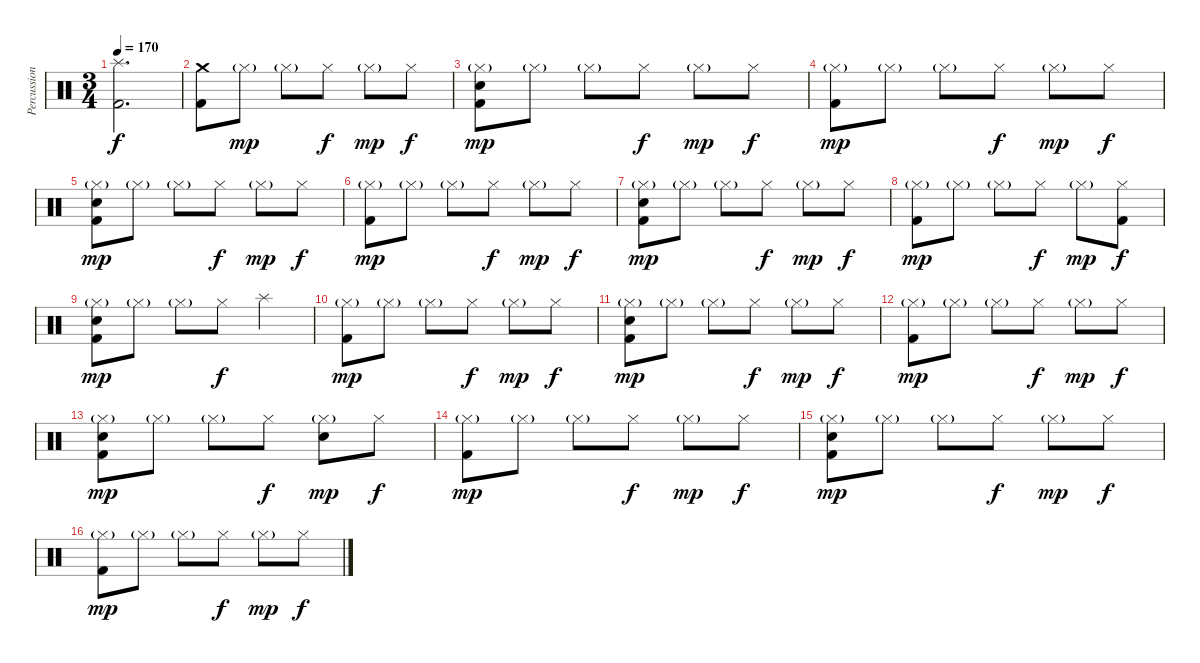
\track ("Percussion" "Percussion") {instrument percussion}
\staff {score}
\articulation defaults
\ts (3 4)
\tempo 170
\clef neutral
\ks c
("Splash (hit)" "Kick (hit) 2").2{d dy f} |
("Crash medium (hit)" "Kick (hit) 2").8 "Hi-Hat (closed)"{g}.8{dy mp} "Hi-Hat (closed)"{g}.8 "Hi-Hat (closed)".8{dy f} "Hi-Hat (closed)"{g}.8{dy mp} "Hi-Hat (closed)".8{dy f} |
("Hi-Hat (closed)"{g} "Electric Snare (hit)" "Kick (hit) 2").8{dy mp} "Hi-Hat (closed)"{g}.8 "Hi-Hat (closed)"{g}.8 "Hi-Hat (closed)".8{dy f} "Hi-Hat (closed)"{g}.8{dy mp} "Hi-Hat (closed)".8{dy f} |
("Hi-Hat (closed)"{g} "Kick (hit) 2").8{dy mp} "Hi-Hat (closed)"{g}.8 "Hi-Hat (closed)"{g}.8 "Hi-Hat (closed)".8{dy f} "Hi-Hat (closed)"{g}.8{dy mp} "Hi-Hat (closed)".8{dy f} |
("Hi-Hat (closed)"{g} "Electric Snare (hit)" "Kick (hit) 2").8{dy mp} "Hi-Hat (closed)"{g}.8 "Hi-Hat (closed)"{g}.8 "Hi-Hat (closed)".8{dy f} "Hi-Hat (closed)"{g}.8{dy mp} "Hi-Hat (closed)".8{dy f} |
("Hi-Hat (closed)"{g} "Kick (hit) 2").8{dy mp} "Hi-Hat (closed)"{g}.8 "Hi-Hat (closed)"{g}.8 "Hi-Hat (closed)".8{dy f} "Hi-Hat (closed)"{g}.8{dy mp} "Hi-Hat (closed)".8{dy f} |
("Hi-Hat (closed)"{g} "Electric Snare (hit)" "Kick (hit) 2").8{dy mp} "Hi-Hat (closed)"{g}.8 "Hi-Hat (closed)"{g}.8 "Hi-Hat (closed)".8{dy f} "Hi-Hat (closed)"{g}.8{dy mp} "Hi-Hat (closed)".8{dy f} |
("Hi-Hat (closed)"{g} "Kick (hit) 2").8{dy mp} "Hi-Hat (closed)"{g}.8 "Hi-Hat (closed)"{g}.8 "Hi-Hat (closed)".8{dy f} "Hi-Hat (closed)"{g}.8{dy mp} ("Hi-Hat (closed)" "Kick (hit) 2").8{dy f} |
("Hi-Hat (closed)"{g} "Electric Snare (hit)" "Kick (hit) 2").8{dy mp} "Hi-Hat (closed)"{g}.8 "Hi-Hat (closed)"{g}.8 "Hi-Hat (closed)".8{dy f} "Splash (hit)".4 |
("Hi-Hat (closed)"{g} "Kick (hit) 2").8{dy mp} "Hi-Hat (closed)"{g}.8 "Hi-Hat (closed)"{g}.8 "Hi-Hat (closed)".8{dy f} "Hi-Hat (closed)"{g}.8{dy mp} "Hi-Hat (closed)".8{dy f} |
("Hi-Hat (closed)"{g} "Electric Snare (hit)" "Kick (hit) 2").8{dy mp} "Hi-Hat (closed)"{g}.8 "Hi-Hat (closed)"{g}.8 "Hi-Hat (closed)".8{dy f} "Hi-Hat (closed)"{g}.8{dy mp} "Hi-Hat (closed)".8{dy f} |
("Hi-Hat (closed)"{g} "Kick (hit) 2").8{dy mp} "Hi-Hat (closed)"{g}.8 "Hi-Hat (closed)"{g}.8 "Hi-Hat (closed)".8{dy f} "Hi-Hat (closed)"{g}.8{dy mp} "Hi-Hat (closed)".8{dy f} |
("Hi-Hat (closed)"{g} "Electric Snare (hit)" "Kick (hit) 2").8{dy mp} "Hi-Hat (closed)"{g}.8 "Hi-Hat (closed)"{g}.8 "Hi-Hat (closed)".8{dy f} ("Hi-Hat (closed)"{g} "Electric Snare (hit)").8{dy mp} "Hi-Hat (closed)".8{dy f} |
("Hi-Hat (closed)"{g} "Kick (hit) 2").8{dy mp} "Hi-Hat (closed)"{g}.8 "Hi-Hat (closed)"{g}.8 "Hi-Hat (closed)".8{dy f} "Hi-Hat (closed)"{g}.8{dy mp} "Hi-Hat (closed)".8{dy f} |
("Hi-Hat (closed)"{g} "Electric Snare (hit)" "Kick (hit) 2").8{dy mp} "Hi-Hat (closed)"{g}.8 "Hi-Hat (closed)"{g}.8 "Hi-Hat (closed)".8{dy f} "Hi-Hat (closed)"{g}.8{dy mp} "Hi-Hat (closed)".8{dy f} |
("Hi-Hat (closed)"{g} "Kick (hit) 2").8{dy mp} "Hi-Hat (closed)"{g}.8 "Hi-Hat (closed)"{g}.8 "Hi-Hat (closed)".8{dy f} "Hi-Hat (closed)"{g}.8{dy mp} "Hi-Hat (closed)".8{dy f}
